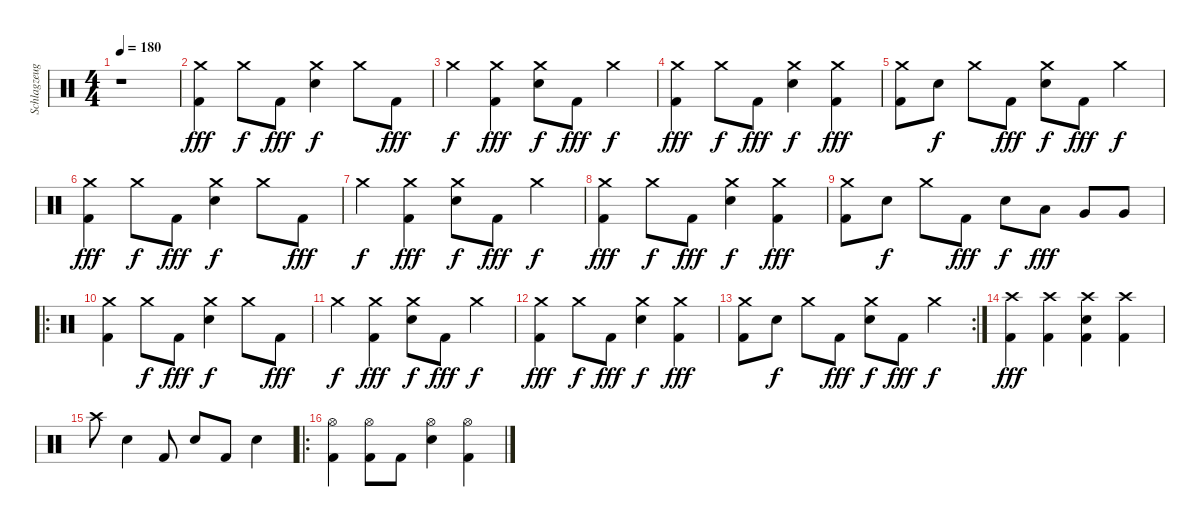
\track ("Schlagzeug" "Schlagzeug") {instrument percussion}
\staff {score}
\articulation defaults
\ts (4 4)
\tempo 180
\clef neutral
\ks c
r.1{dy fff} |
("Crash medium (hit)" "Kick (hit) 2").4 "Crash medium (hit)".8{dy f} "Kick (hit) 2".8{dy fff} ("Crash medium (hit)" "Electric Snare (hit)").4{dy f} "Crash medium (hit)".8 "Kick (hit) 2".8{dy fff} |
"Crash medium (hit)".4{dy f} ("Crash medium (hit)" "Kick (hit) 2").4{dy fff} ("Crash medium (hit)" "Electric Snare (hit)").8{dy f} "Kick (hit) 2".8{dy fff} "Crash medium (hit)".4{dy f} |
("Crash medium (hit)" "Kick (hit) 2").4{dy fff} "Crash medium (hit)".8{dy f} "Kick (hit) 2".8{dy fff} ("Crash medium (hit)" "Electric Snare (hit)").4{dy f} ("Crash medium (hit)" "Kick (hit) 2").4{dy fff} |
("Crash medium (hit)" "Kick (hit) 2").8 "Electric Snare (hit)".8{dy f} "Crash medium (hit)".8 "Kick (hit) 2".8{dy fff} ("Crash medium (hit)" "Electric Snare (hit)").8{dy f} "Kick (hit) 2".8{dy fff} "Crash medium (hit)".4{dy f} |
("Crash medium (hit)" "Kick (hit) 2").4{dy fff} "Crash medium (hit)".8{dy f} "Kick (hit) 2".8{dy fff} ("Crash medium (hit)" "Electric Snare (hit)").4{dy f} "Crash medium (hit)".8 "Kick (hit) 2".8{dy fff} |
"Crash medium (hit)".4{dy f} ("Crash medium (hit)" "Kick (hit) 2").4{dy fff} ("Crash medium (hit)" "Electric Snare (hit)").8{dy f} "Kick (hit) 2".8{dy fff} "Crash medium (hit)".4{dy f} |
("Crash medium (hit)" "Kick (hit) 2").4{dy fff} "Crash medium (hit)".8{dy f} "Kick (hit) 2".8{dy fff} ("Crash medium (hit)" "Electric Snare (hit)").4{dy f} ("Crash medium (hit)" "Kick (hit) 2").4{dy fff} |
("Crash medium (hit)" "Kick (hit) 2").8 "Electric Snare (hit)".8{dy f} "Crash medium (hit)".8 "Kick (hit) 2".8{dy fff} "Electric Snare (hit)".8{dy f} "Low Tom (hit)".8{dy fff} "Very Low Tom (hit)".8 "Very Low Tom (hit)".8 |
\ro
("Crash medium (hit)" "Kick (hit) 2").4 "Crash medium (hit)".8{dy f} "Kick (hit) 2".8{dy fff} ("Crash medium (hit)" "Electric Snare (hit)").4{dy f} "Crash medium (hit)".8 "Kick (hit) 2".8{dy fff} |
"Crash medium (hit)".4{dy f} ("Crash medium (hit)" "Kick (hit) 2").4{dy fff} ("Crash medium (hit)" "Electric Snare (hit)").8{dy f} "Kick (hit) 2".8{dy fff} "Crash medium (hit)".4{dy f} |
("Crash medium (hit)" "Kick (hit) 2").4{dy fff} "Crash medium (hit)".8{dy f} "Kick (hit) 2".8{dy fff} ("Crash medium (hit)" "Electric Snare (hit)").4{dy f} ("Crash medium (hit)" "Kick (hit) 2").4{dy fff} |
\rc 2
("Crash medium (hit)" "Kick (hit) 2").8 "Electric Snare (hit)".8{dy f} "Crash medium (hit)".8 "Kick (hit) 2".8{dy fff} ("Crash medium (hit)" "Electric Snare (hit)").8{dy f} "Kick (hit) 2".8{dy fff} "Crash medium (hit)".4{dy f} |
("Crash high (hit)" "Kick (hit) 2").4{dy fff} ("Crash high (hit)" "Kick (hit) 2").4 ("Crash high (hit)" "Kick (hit) 2" "Electric Snare (hit)").4 ("Crash high (hit)" "Kick (hit) 2").4 |
"Crash high (hit)".8 "Electric Snare (hit)".4 "Kick (hit) 2".8 "Electric Snare (hit)".8 "Kick (hit) 2".8 "Electric Snare (hit)".4 |
\ro
("Hi-Hat (open)" "Kick (hit) 2").4 ("Hi-Hat (open)" "Kick (hit) 2").8 "Kick (hit) 2".8 ("Hi-Hat (open)" "Electric Snare (hit)").4 ("Hi-Hat (open)" "Kick (hit) 2").4
